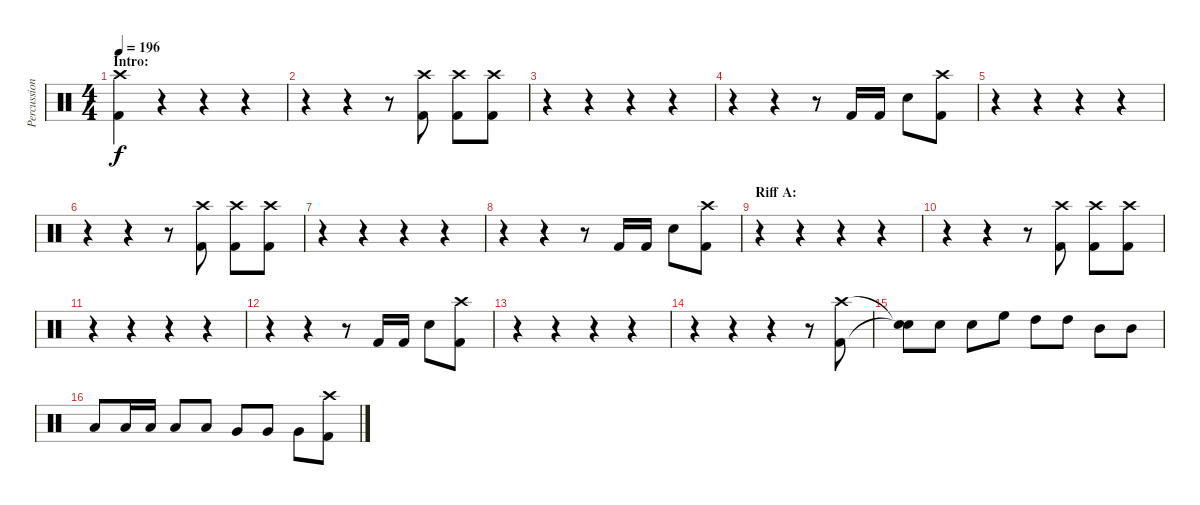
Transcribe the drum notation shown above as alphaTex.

\track ("Percussion" "Percussion") {instrument percussion}
\staff {score}
\articulation defaults
\ts (4 4)
\section ("" "Intro:")
\tempo 196
\clef neutral
\ks c
("Crash high (hit)" "Kick (hit) 2").4{dy f} r.4 r.4 r.4 |
r.4 r.4 r.8 ("Crash high (hit)" "Kick (hit) 2").8 ("Crash high (hit)" "Kick (hit) 2").8 ("Crash high (hit)" "Kick (hit) 2").8 |
r.4 r.4 r.4 r.4 |
r.4 r.4 r.8 "Kick (hit) 2".16 "Kick (hit) 2".16 "Snare (hit) 2".8 ("Crash high (hit)" "Kick (hit) 2").8 |
r.4 r.4 r.4 r.4 |
r.4 r.4 r.8 ("Crash high (hit)" "Kick (hit) 2").8 ("Crash high (hit)" "Kick (hit) 2").8 ("Crash high (hit)" "Kick (hit) 2").8 |
r.4 r.4 r.4 r.4 |
r.4 r.4 r.8 "Kick (hit) 2".16 "Kick (hit) 2".16 "Snare (hit) 2".8 ("Crash high (hit)" "Kick (hit) 2").8 |
\section ("" "Riff A:")
r.4 r.4 r.4 r.4 |
r.4 r.4 r.8 ("Crash high (hit)" "Kick (hit) 2").8 ("Crash high (hit)" "Kick (hit) 2").8 ("Crash high (hit)" "Kick (hit) 2").8 |
r.4 r.4 r.4 r.4 |
r.4 r.4 r.8 "Kick (hit) 2".16 "Kick (hit) 2".16 "Snare (hit) 2".8 ("Crash high (hit)" "Kick (hit) 2").8 |
r.4 r.4 r.4 r.4 |
r.4 r.4 r.4 r.8 ("Crash high (hit)" "Kick (hit) 2").8 |
("Snare (hit)"{t} "Snare (hit)"{t}).8 "Snare (hit) 2".8 "Snare (hit) 2".8 "High Floor Tom (hit)".8 "High Tom (hit)".8 "High Tom (hit)".8 "Mid Tom (hit)".8 "Mid Tom (hit)".8 |
"Low Tom (hit)".8 "Low Tom (hit)".16 "Low Tom (hit)".16 "Low Tom (hit)".8 "Low Tom (hit)".8 "Very Low Tom (hit)".8 "Very Low Tom (hit)".8 "Very Low Tom (hit)".8 ("Crash high (hit)" "Kick (hit) 2").8
